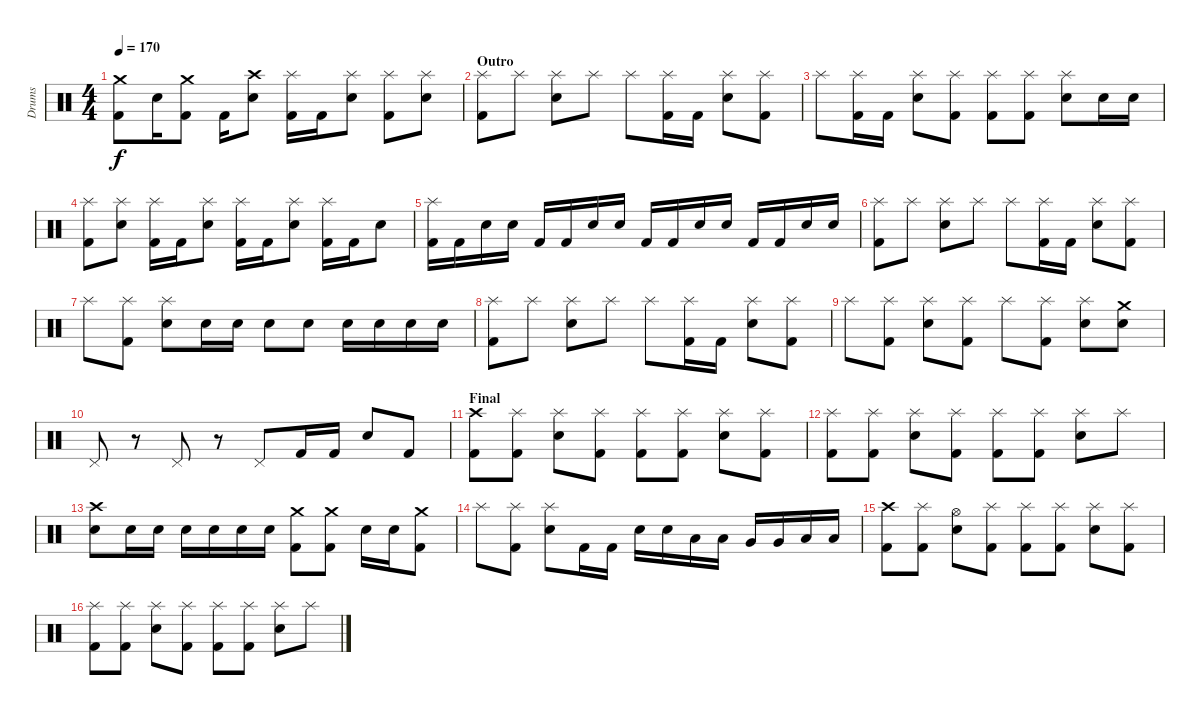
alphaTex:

\track ("Drums" "Drums") {instrument percussion}
\staff {score}
\articulation defaults
\ts (4 4)
\tempo 170
\clef neutral
\ks c
("Crash medium (hit)" "Kick (hit) 2").8{dy f} "Electric Snare (hit)".16 ("Crash medium (hit)" "Kick (hit) 2").8 "Kick (hit) 2".16 ("Crash high (hit)" "Electric Snare (hit)").8 ("Splash (hit)" "Kick (hit) 2").16 "Kick (hit) 2".16 ("Splash (hit)" "Electric Snare (hit)").8 ("Splash (hit)" "Kick (hit) 2").8 ("Splash (hit)" "Electric Snare (hit)").8 |
\section ("" "Outro")
("Splash (hit)" "Kick (hit) 2").8 "Splash (hit)".8 ("Splash (hit)" "Electric Snare (hit)").8 "Splash (hit)".8 "Splash (hit)".8 ("Splash (hit)" "Kick (hit) 2").16 "Kick (hit) 2".16 ("Splash (hit)" "Electric Snare (hit)").8 ("Splash (hit)" "Kick (hit) 2").8 |
"Splash (hit)".8 ("Splash (hit)" "Kick (hit) 2").16 "Kick (hit) 2".16 ("Splash (hit)" "Electric Snare (hit)").8 ("Splash (hit)" "Kick (hit) 2").8 ("Splash (hit)" "Kick (hit) 2").8 ("Splash (hit)" "Kick (hit) 2").8 ("Splash (hit)" "Electric Snare (hit)").8 "Electric Snare (hit)".16 "Electric Snare (hit)".16 |
("Splash (hit)" "Kick (hit) 2").8 ("Splash (hit)" "Electric Snare (hit)").8 ("Splash (hit)" "Kick (hit) 2").16 "Kick (hit) 2".16 ("Splash (hit)" "Electric Snare (hit)").8 ("Splash (hit)" "Kick (hit) 2").16 "Kick (hit) 2".16 ("Splash (hit)" "Electric Snare (hit)").8 ("Splash (hit)" "Kick (hit) 2").16 "Kick (hit) 2".16 "Electric Snare (hit)".8 |
("Splash (hit)" "Kick (hit) 2").16 "Kick (hit) 2".16 "Electric Snare (hit)".16 "Electric Snare (hit)".16 "Kick (hit) 2".16 "Kick (hit) 2".16 "Electric Snare (hit)".16 "Electric Snare (hit)".16 "Kick (hit) 2".16 "Kick (hit) 2".16 "Electric Snare (hit)".16 "Electric Snare (hit)".16 "Kick (hit) 2".16 "Kick (hit) 2".16 "Electric Snare (hit)".16 "Electric Snare (hit)".16 |
("Splash (hit)" "Kick (hit) 2").8 "Splash (hit)".8 ("Splash (hit)" "Electric Snare (hit)").8 "Splash (hit)".8 "Splash (hit)".8 ("Splash (hit)" "Kick (hit) 2").16 "Kick (hit) 2".16 ("Splash (hit)" "Electric Snare (hit)").8 ("Splash (hit)" "Kick (hit) 2").8 |
"Splash (hit)".8 ("Splash (hit)" "Kick (hit) 2").8 ("Splash (hit)" "Electric Snare (hit)").8 "Electric Snare (hit)".16 "Electric Snare (hit)".16 "Electric Snare (hit)".8 "Electric Snare (hit)".8 "Electric Snare (hit)".16 "Electric Snare (hit)".16 "Electric Snare (hit)".16 "Electric Snare (hit)".16 |
("Splash (hit)" "Kick (hit) 2").8 "Splash (hit)".8 ("Splash (hit)" "Electric Snare (hit)").8 "Splash (hit)".8 "Splash (hit)".8 ("Splash (hit)" "Kick (hit) 2").16 "Kick (hit) 2".16 ("Splash (hit)" "Electric Snare (hit)").8 ("Splash (hit)" "Kick (hit) 2").8 |
"Splash (hit)".8 ("Splash (hit)" "Kick (hit) 2").8 ("Splash (hit)" "Electric Snare (hit)").8 ("Splash (hit)" "Kick (hit) 2").8 "Splash (hit)".8 ("Splash (hit)" "Kick (hit) 2").8 ("Splash (hit)" "Electric Snare (hit)").8 ("Crash medium (hit)" "Electric Snare (hit)").8 |
"Pedal Hi-Hat (hit)".8 r.8 "Pedal Hi-Hat (hit)".8 r.8 "Pedal Hi-Hat (hit)".8 "Kick (hit) 2".16 "Kick (hit) 2".16 "Electric Snare (hit)".8 "Kick (hit) 2".8 |
\section ("" "Final")
("Crash high (hit)" "Kick (hit) 2").8 ("Splash (hit)" "Kick (hit) 2").8 ("Splash (hit)" "Electric Snare (hit)").8 ("Splash (hit)" "Kick (hit) 2").8 ("Splash (hit)" "Kick (hit) 2").8 ("Splash (hit)" "Kick (hit) 2").8 ("Splash (hit)" "Electric Snare (hit)").8 ("Splash (hit)" "Kick (hit) 2").8 |
("Splash (hit)" "Kick (hit) 2").8 ("Splash (hit)" "Kick (hit) 2").8 ("Splash (hit)" "Electric Snare (hit)").8 ("Splash (hit)" "Kick (hit) 2").8 ("Splash (hit)" "Kick (hit) 2").8 ("Splash (hit)" "Kick (hit) 2").8 ("Splash (hit)" "Electric Snare (hit)").8 "Splash (hit)".8 |
("Crash high (hit)" "Electric Snare (hit)").8 "Electric Snare (hit)".16 "Electric Snare (hit)".16 "Electric Snare (hit)".16 "Electric Snare (hit)".16 "Electric Snare (hit)".16 "Electric Snare (hit)".16 ("Crash medium (hit)" "Kick (hit) 2").8 ("Crash medium (hit)" "Kick (hit) 2").8 "Electric Snare (hit)".16 "Electric Snare (hit)".16 ("Crash medium (hit)" "Kick (hit) 2").8 |
"Splash (hit)".8 ("Splash (hit)" "Kick (hit) 2").8 ("Splash (hit)" "Electric Snare (hit)").8 "Kick (hit) 2".16 "Kick (hit) 2".16 "Electric Snare (hit)".16 "Electric Snare (hit)".16 "Low Tom (hit)".16 "Low Tom (hit)".16 "Very Low Tom (hit)".16 "Very Low Tom (hit)".16 "Low Floor Tom (hit)".16 "Low Floor Tom (hit)".16 |
("Crash high (hit)" "Kick (hit) 2").8 ("Splash (hit)" "Kick (hit) 2").8 ("Hi-Hat (open)" "Electric Snare (hit)").8 ("Splash (hit)" "Kick (hit) 2").8 ("Splash (hit)" "Kick (hit) 2").8 ("Splash (hit)" "Kick (hit) 2").8 ("Splash (hit)" "Electric Snare (hit)").8 ("Splash (hit)" "Kick (hit) 2").8 |
("Splash (hit)" "Kick (hit) 2").8 ("Splash (hit)" "Kick (hit) 2").8 ("Splash (hit)" "Electric Snare (hit)").8 ("Splash (hit)" "Kick (hit) 2").8 ("Splash (hit)" "Kick (hit) 2").8 ("Splash (hit)" "Kick (hit) 2").8 ("Splash (hit)" "Electric Snare (hit)").8 "Splash (hit)".8
